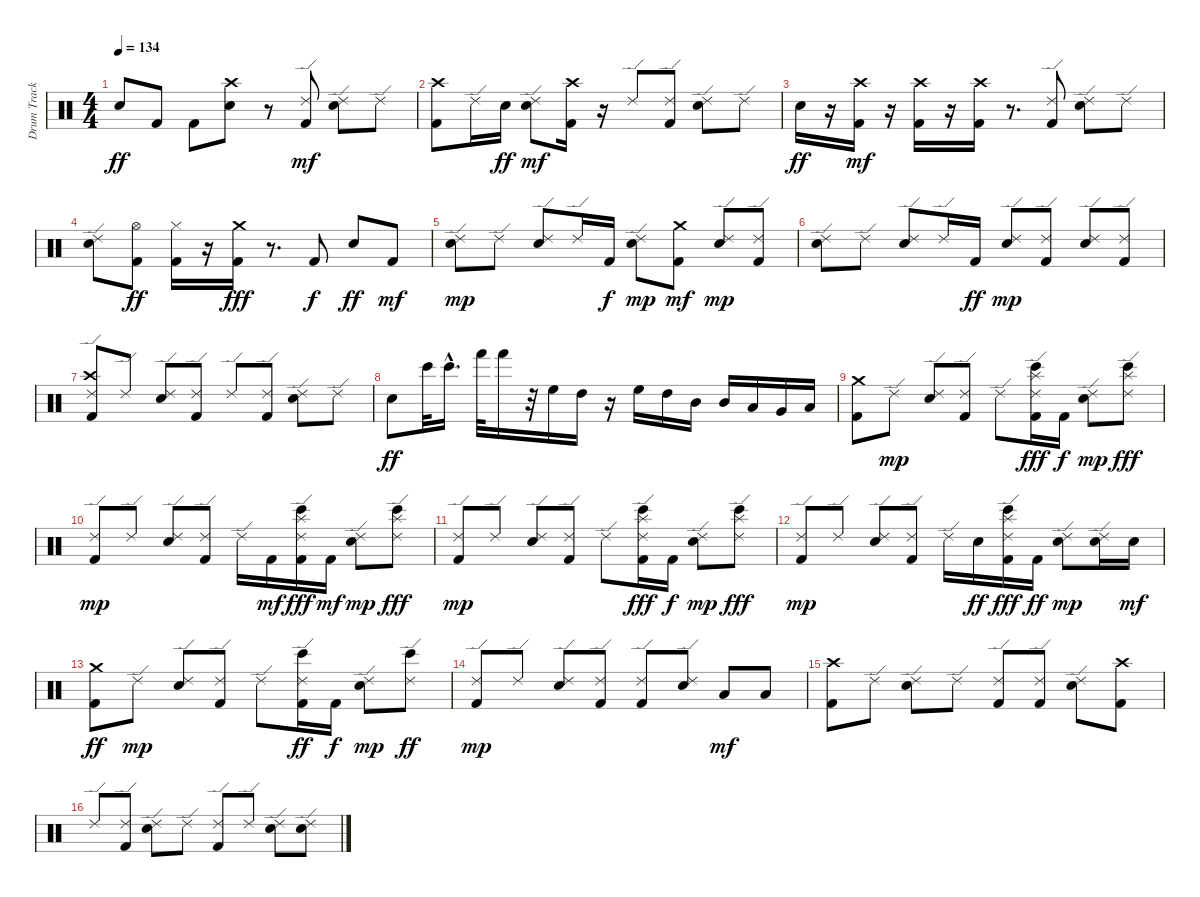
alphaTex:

\track ("Drum Track" "Drum Track") {instrument percussion}
\staff {score}
\articulation defaults
\ts (4 4)
\tempo 134
\clef neutral
\ks c "Electric Snare (hit)".8{dy ff} "Kick (hit) 2".8 "Kick (hit) 2".8
("Electric Snare (hit)" "Crash high (hit)").8 r.8 ("Kick (hit) 2" "Ride (edge) 2").8{dy mf} ("Electric Snare (hit)" "Ride (edge) 2").8 "Ride (edge) 2".8 |
("Kick (hit) 2" "Crash high (hit)").8 "Ride (edge) 2".16 "Electric Snare (hit)".16{dy ff} ("Electric Snare (hit)" "Ride (edge) 2").8{dy mf} ("Kick (hit) 2" "Crash high (hit)").16 r.16 "Ride (edge) 2".8 ("Kick (hit) 2" "Ride (edge) 2").8 ("Electric Snare (hit)" "Ride (edge) 2").8 "Ride (edge) 2".8 |
"Electric Snare (hit)".16{dy ff} r.16 ("Kick (hit) 2" "Crash high (hit)").16{dy mf} r.16 ("Kick (hit) 2" "Crash high (hit)").16 r.16 ("Kick (hit) 2" "Crash high (hit)").16 r.8{d} ("Kick (hit) 2" "Ride (edge) 2").8 ("Electric Snare (hit)" "Ride (edge) 2").8 "Ride (edge) 2".8 |
("Electric Snare (hit)" "Ride (edge) 2").8 ("Kick (hit) 2" "Hi-Hat (open)").8{dy ff} ("Kick (hit) 2" "Hi-Hat (closed)").16 r.16 ("Kick (hit) 2" "Crash medium (hit)").16{dy fff} r.8{d} "Kick (hit) 2".8{dy f} "Electric Snare (hit)".8{dy ff} "Kick (hit) 2".8{dy mf} |
("Electric Snare (hit)" "Ride (edge) 2").8{dy mp} "Ride (edge) 2".8 ("Electric Snare (hit)" "Ride (edge) 2").8 "Ride (edge) 2".16 "Kick (hit) 2".16{dy f} ("Electric Snare (hit)" "Ride (edge) 2").8{dy mp} ("Kick (hit) 2" "Crash medium (hit)").8{dy mf} ("Electric Snare (hit)" "Ride (edge) 2").8{dy mp} ("Kick (hit) 2" "Ride (edge) 2").8 |
("Electric Snare (hit)" "Ride (edge) 2").8 "Ride (edge) 2".8 ("Electric Snare (hit)" "Ride (edge) 2").8 "Ride (edge) 2".16 "Kick (hit) 2".16{dy ff} ("Electric Snare (hit)" "Ride (edge) 2").8{dy mp} ("Kick (hit) 2" "Ride (edge) 2").8 ("Electric Snare (hit)" "Ride (edge) 2").8 ("Kick (hit) 2" "Ride (edge) 2").8 |
("Kick (hit) 2" "Crash high (hit)" "Ride (edge) 2").8 "Ride (edge) 2".8 ("Electric Snare (hit)" "Ride (edge) 2").8 ("Kick (hit) 2" "Ride (edge) 2").8 "Ride (edge) 2".8 ("Kick (hit) 2" "Ride (edge) 2").8 ("Electric Snare (hit)" "Ride (edge) 2").8 "Ride (edge) 2".8 |
"Electric Snare (hit)".8{dy ff} "Bongo High (hit)".32 "Bongo High (hit)"{hac}.16{d} "Hand (hit)".32 "Hand (hit)".16 r.32 "High Floor Tom (hit)".16 "High Tom (hit)".16 r.16 "High Floor Tom (hit)".16 "High Tom (hit)".16 "Mid Tom (hit)".16 "Mid Tom (hit)".16 "Low Tom (hit)".16 "Very Low Tom (hit)".16 "Low Floor Tom (hit)".16 |
("Kick (hit) 2" "Crash medium (hit)").8 "Ride (edge) 2".8{dy mp} ("Electric Snare (hit)" "Ride (edge) 2").8 ("Kick (hit) 2" "Ride (edge) 2").8 "Ride (edge) 2".8 ("Kick (hit) 2" "Splash (hit)" "Ride (edge) 2" "Bongo High (hit)").16{dy fff} "Kick (hit) 2".16{dy f} ("Electric Snare (hit)" "Ride (edge) 2").8{dy mp} ("Splash (hit)" "Ride (edge) 2" "Bongo High (hit)").8{dy fff} |
("Kick (hit) 2" "Ride (edge) 2").8{dy mp} "Ride (edge) 2".8 ("Electric Snare (hit)" "Ride (edge) 2").8 ("Kick (hit) 2" "Ride (edge) 2").8 "Ride (edge) 2".16 "Kick (hit) 2".16{dy mf} ("Kick (hit) 2" "Splash (hit)" "Ride (edge) 2" "Bongo High (hit)").16{dy fff} "Kick (hit) 2".16{dy mf} ("Electric Snare (hit)" "Ride (edge) 2").8{dy mp} ("Splash (hit)" "Ride (edge) 2" "Bongo High (hit)").8{dy fff} |
("Kick (hit) 2" "Ride (edge) 2").8{dy mp} "Ride (edge) 2".8 ("Electric Snare (hit)" "Ride (edge) 2").8 ("Kick (hit) 2" "Ride (edge) 2").8 "Ride (edge) 2".8 ("Kick (hit) 2" "Splash (hit)" "Ride (edge) 2" "Bongo High (hit)").16{dy fff} "Kick (hit) 2".16{dy f} ("Electric Snare (hit)" "Ride (edge) 2").8{dy mp} ("Splash (hit)" "Ride (edge) 2" "Bongo High (hit)").8{dy fff} |
("Kick (hit) 2" "Ride (edge) 2").8{dy mp} "Ride (edge) 2".8 ("Electric Snare (hit)" "Ride (edge) 2").8 ("Kick (hit) 2" "Ride (edge) 2").8 "Ride (edge) 2".16 "Electric Snare (hit)".16{dy ff} ("Kick (hit) 2" "Splash (hit)" "Ride (edge) 2" "Bongo High (hit)").16{dy fff} "Kick (hit) 2".16{dy ff} ("Electric Snare (hit)" "Ride (edge) 2").8{dy mp} ("Electric Snare (hit)" "Ride (edge) 2").16 "Electric Snare (hit)".16{dy mf} |
("Kick (hit) 2" "Crash medium (hit)").8{dy ff} "Ride (edge) 2".8{dy mp} ("Electric Snare (hit)" "Ride (edge) 2").8 ("Kick (hit) 2" "Ride (edge) 2").8 "Ride (edge) 2".8 ("Kick (hit) 2" "Ride (edge) 2" "Bongo High (hit)").16{dy ff} "Kick (hit) 2".16{dy f} ("Electric Snare (hit)" "Ride (edge) 2").8{dy mp} ("Ride (edge) 2" "Bongo High (hit)").8{dy ff} |
("Kick (hit) 2" "Ride (edge) 2").8{dy mp} "Ride (edge) 2".8 ("Electric Snare (hit)" "Ride (edge) 2").8 ("Kick (hit) 2" "Ride (edge) 2").8 ("Kick (hit) 2" "Ride (edge) 2").8 ("Electric Snare (hit)" "Ride (edge) 2").8 "Low Floor Tom (hit)".8{dy mf} "Low Floor Tom (hit)".8 |
("Kick (hit) 2" "Crash high (hit)").8 "Ride (edge) 2".8 ("Electric Snare (hit)" "Ride (edge) 2").8 "Ride (edge) 2".8 ("Kick (hit) 2" "Ride (edge) 2").8 ("Kick (hit) 2" "Ride (edge) 2").8 ("Electric Snare (hit)" "Ride (edge) 2").8 ("Kick (hit) 2" "Crash high (hit)").8 |
"Ride (edge) 2".8 ("Kick (hit) 2" "Ride (edge) 2").8 ("Electric Snare (hit)" "Ride (edge) 2").8 "Ride (edge) 2".8 ("Kick (hit) 2" "Ride (edge) 2").8 "Ride (edge) 2".8 ("Electric Snare (hit)" "Ride (edge) 2").8 ("Electric Snare (hit)" "Ride (edge) 2").8
